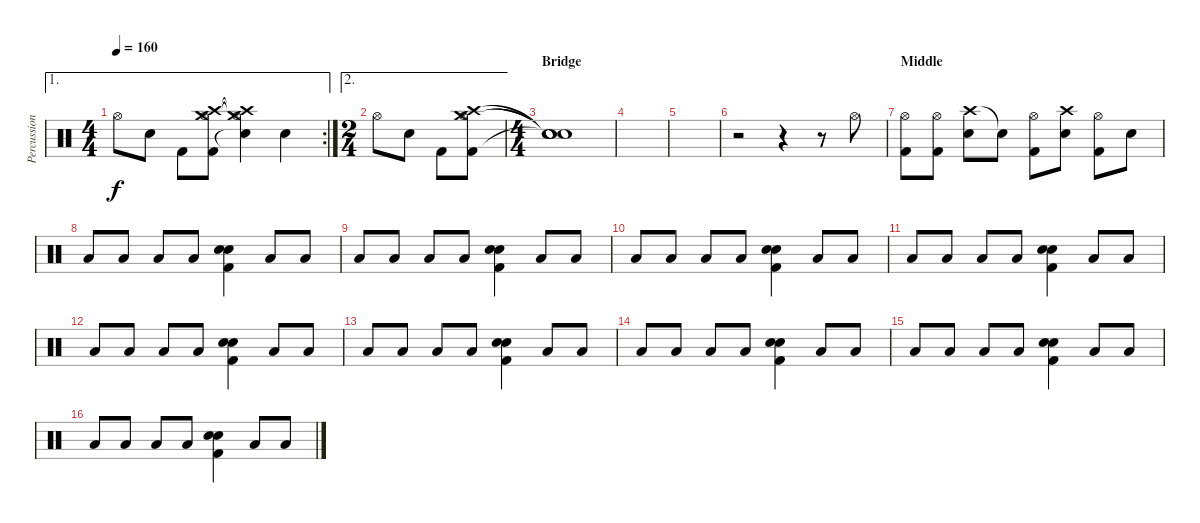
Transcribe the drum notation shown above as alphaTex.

\track ("Percussion" "Percussion") {instrument percussion}
\staff {score}
\articulation defaults
\ae 1
\rc 2
\ts (4 4)
\tempo 160
\clef neutral
\ks c "Hi-Hat (open)".8{dy f} "Snare (hit) 2".8 "Kick (hit) 2".8
("Crash high (hit)" "Hi-Hat (open)" "Crash medium (hit)" "Kick (hit) 2").8 ("Crash high (hit)"{t} "Hi-Hat (open)"{t} "Crash medium (hit)"{t} "Snare (hit) 2"{t}).4 "Snare (hit) 2".4 |
\ae 2
\ts (2 4)
"Hi-Hat (open)".8 "Snare (hit) 2".8 "Kick (hit) 2".8 ("Crash high (hit)" "Hi-Hat (open)" "Crash medium (hit)" "Kick (hit) 2").8 |
\ts (4 4)
\section ("" "Bridge")
("Snare (hit)"{t} "Snare (hit)"{t} "Snare (hit)"{t} "Snare (hit)"{t}).1 |
|
|
r.2 r.4 r.8 "Hi-Hat (open)".8 |
\section ("" "Middle")
("Hi-Hat (open)" "Kick (hit) 2").8 ("Hi-Hat (open)" "Kick (hit) 2").8 ("Crash high (hit)" "Snare (hit) 2").8 "Snare (hit)"{t}.8 ("Hi-Hat (open)" "Kick (hit) 2").8 ("Crash high (hit)" "Snare (hit) 2").8 ("Hi-Hat (open)" "Kick (hit) 2").8 "Snare (hit) 2".8 |
"Low Floor Tom (hit)".8 "Low Floor Tom (hit)".8 "Low Floor Tom (hit)".8 "Low Floor Tom (hit)".8 ("Electric Snare (hit)" "Snare (hit) 2" "Kick (hit) 2").4 "Low Floor Tom (hit)".8 "Low Floor Tom (hit)".8 |
"Low Floor Tom (hit)".8 "Low Floor Tom (hit)".8 "Low Floor Tom (hit)".8 "Low Floor Tom (hit)".8 ("Electric Snare (hit)" "Snare (hit) 2" "Kick (hit) 2").4 "Low Floor Tom (hit)".8 "Low Floor Tom (hit)".8 |
"Low Floor Tom (hit)".8 "Low Floor Tom (hit)".8 "Low Floor Tom (hit)".8 "Low Floor Tom (hit)".8 ("Electric Snare (hit)" "Snare (hit) 2" "Kick (hit) 2").4 "Low Floor Tom (hit)".8 "Low Floor Tom (hit)".8 |
"Low Floor Tom (hit)".8 "Low Floor Tom (hit)".8 "Low Floor Tom (hit)".8 "Low Floor Tom (hit)".8 ("Electric Snare (hit)" "Snare (hit) 2" "Kick (hit) 2").4 "Low Floor Tom (hit)".8 "Low Floor Tom (hit)".8 |
"Low Floor Tom (hit)".8 "Low Floor Tom (hit)".8 "Low Floor Tom (hit)".8 "Low Floor Tom (hit)".8 ("Electric Snare (hit)" "Snare (hit) 2" "Kick (hit) 2").4 "Low Floor Tom (hit)".8 "Low Floor Tom (hit)".8 |
"Low Floor Tom (hit)".8 "Low Floor Tom (hit)".8 "Low Floor Tom (hit)".8 "Low Floor Tom (hit)".8 ("Electric Snare (hit)" "Snare (hit) 2" "Kick (hit) 2").4 "Low Floor Tom (hit)".8 "Low Floor Tom (hit)".8 |
"Low Floor Tom (hit)".8 "Low Floor Tom (hit)".8 "Low Floor Tom (hit)".8 "Low Floor Tom (hit)".8 ("Electric Snare (hit)" "Snare (hit) 2" "Kick (hit) 2").4 "Low Floor Tom (hit)".8 "Low Floor Tom (hit)".8 |
"Low Floor Tom (hit)".8 "Low Floor Tom (hit)".8 "Low Floor Tom (hit)".8 "Low Floor Tom (hit)".8 ("Electric Snare (hit)" "Snare (hit) 2" "Kick (hit) 2").4 "Low Floor Tom (hit)".8 "Low Floor Tom (hit)".8 |
"Low Floor Tom (hit)".8 "Low Floor Tom (hit)".8 "Low Floor Tom (hit)".8 "Low Floor Tom (hit)".8 ("Electric Snare (hit)" "Snare (hit) 2" "Kick (hit) 2").4 "Low Floor Tom (hit)".8 "Low Floor Tom (hit)".8
